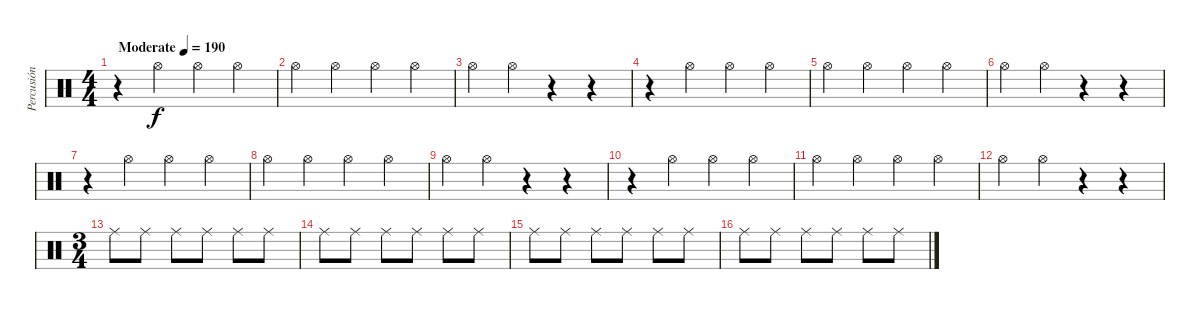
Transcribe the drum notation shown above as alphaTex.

\track ("Percusión" "Percusión") {instrument percussion}
\staff {score}
\articulation defaults
\ts (4 4)
\tempo (190 "Moderate")
\clef neutral
\ks c
r.4{dy f} "Hi-Hat (open)".4 "Hi-Hat (open)".4 "Hi-Hat (open)".4 |
"Hi-Hat (open)".4 "Hi-Hat (open)".4 "Hi-Hat (open)".4 "Hi-Hat (open)".4 |
"Hi-Hat (open)".4 "Hi-Hat (open)".4 r.4 r.4 |
r.4 "Hi-Hat (open)".4 "Hi-Hat (open)".4 "Hi-Hat (open)".4 |
"Hi-Hat (open)".4 "Hi-Hat (open)".4 "Hi-Hat (open)".4 "Hi-Hat (open)".4 |
"Hi-Hat (open)".4 "Hi-Hat (open)".4 r.4 r.4 |
r.4 "Hi-Hat (open)".4 "Hi-Hat (open)".4 "Hi-Hat (open)".4 |
"Hi-Hat (open)".4 "Hi-Hat (open)".4 "Hi-Hat (open)".4 "Hi-Hat (open)".4 |
"Hi-Hat (open)".4 "Hi-Hat (open)".4 r.4 r.4 |
r.4 "Hi-Hat (open)".4 "Hi-Hat (open)".4 "Hi-Hat (open)".4 |
"Hi-Hat (open)".4 "Hi-Hat (open)".4 "Hi-Hat (open)".4 "Hi-Hat (open)".4 |
"Hi-Hat (open)".4 "Hi-Hat (open)".4 r.4 r.4 |
\ts (3 4)
"Ride (middle)".8 "Ride (middle)".8 "Ride (middle)".8 "Ride (middle)".8 "Ride (middle)".8 "Ride (middle)".8 |
"Ride (middle)".8 "Ride (middle)".8 "Ride (middle)".8 "Ride (middle)".8 "Ride (middle)".8 "Ride (middle)".8 |
"Ride (middle)".8 "Ride (middle)".8 "Ride (middle)".8 "Ride (middle)".8 "Ride (middle)".8 "Ride (middle)".8 |
"Ride (middle)".8 "Ride (middle)".8 "Ride (middle)".8 "Ride (middle)".8 "Ride (middle)".8 "Ride (middle)".8
